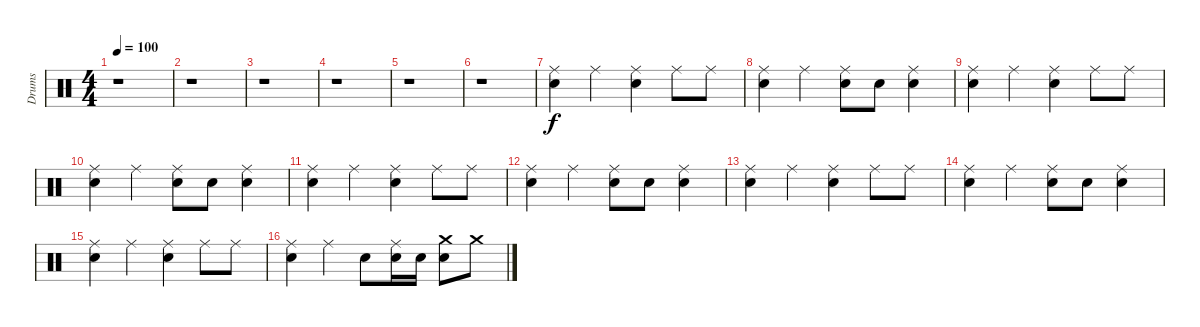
\track ("Drums" "Drums") {instrument percussion}
\staff {score}
\articulation defaults
\ts (4 4)
\tempo 100
\clef neutral
\ks c
r.1{dy f} |
r.1 |
r.1 |
r.1 |
r.1 |
r.1 |
("Ride (middle)" "Snare (hit) 2").4 "Ride (middle)".4 ("Ride (middle)" "Electric Snare (hit)").4 "Ride (middle)".8 "Ride (middle)".8 |
("Ride (middle)" "Snare (hit) 2").4 "Ride (middle)".4 ("Ride (middle)" "Electric Snare (hit)").8 "Electric Snare (hit)".8 ("Ride (middle)" "Snare (hit) 2").4 |
("Ride (middle)" "Snare (hit) 2").4 "Ride (middle)".4 ("Ride (middle)" "Electric Snare (hit)").4 "Ride (middle)".8 "Ride (middle)".8 |
("Ride (middle)" "Snare (hit) 2").4 "Ride (middle)".4 ("Ride (middle)" "Electric Snare (hit)").8 "Electric Snare (hit)".8 ("Ride (middle)" "Snare (hit) 2").4 |
("Ride (middle)" "Snare (hit) 2").4 "Ride (middle)".4 ("Ride (middle)" "Electric Snare (hit)").4 "Ride (middle)".8 "Ride (middle)".8 |
("Ride (middle)" "Snare (hit) 2").4 "Ride (middle)".4 ("Ride (middle)" "Electric Snare (hit)").8 "Electric Snare (hit)".8 ("Ride (middle)" "Snare (hit) 2").4 |
("Ride (middle)" "Snare (hit) 2").4 "Ride (middle)".4 ("Ride (middle)" "Electric Snare (hit)").4 "Ride (middle)".8 "Ride (middle)".8 |
("Ride (middle)" "Snare (hit) 2").4 "Ride (middle)".4 ("Ride (middle)" "Electric Snare (hit)").8 "Electric Snare (hit)".8 ("Ride (middle)" "Snare (hit) 2").4 |
("Ride (middle)" "Snare (hit) 2").4 "Ride (middle)".4 ("Ride (middle)" "Electric Snare (hit)").4 "Ride (middle)".8 "Ride (middle)".8 |
("Ride (middle)" "Snare (hit) 2").4 "Ride (middle)".4 "Snare (hit) 2".8 ("Ride (middle)" "Electric Snare (hit)").16 "Electric Snare (hit)".16 ("Crash medium (hit)" "Snare (hit) 2").8 "Crash medium (hit)".8
